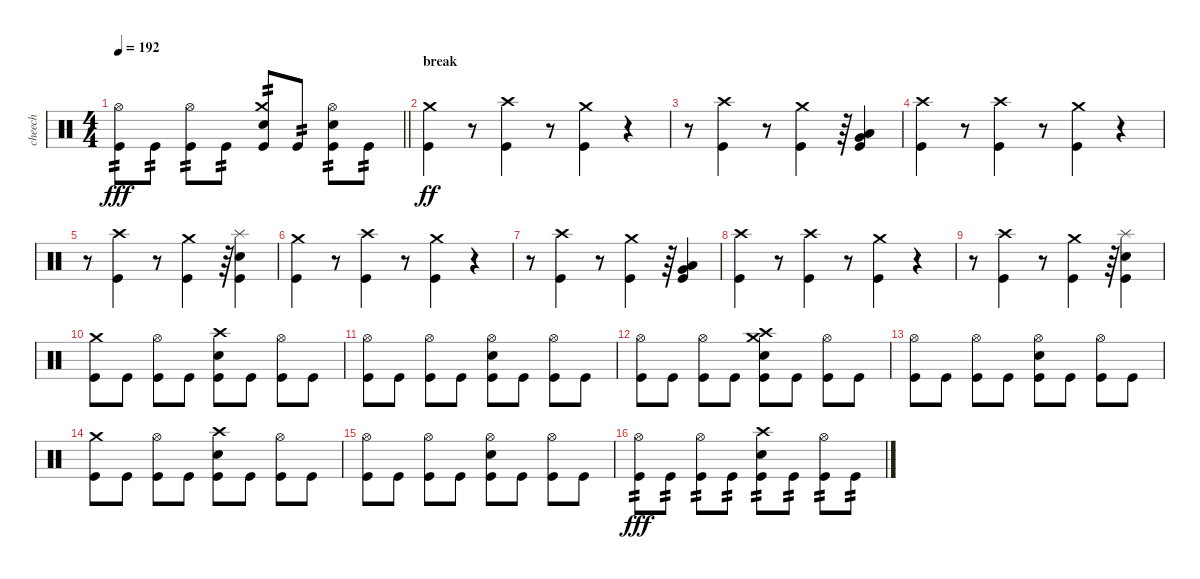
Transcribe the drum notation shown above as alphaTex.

\track ("cheech" "cheech") {instrument percussion}
\staff {score}
\articulation defaults
\ts (4 4)
\tempo 192
\clef neutral
\barLineRight lightlight
\ks c
("Hi-Hat (open)" "Kick (hit)").8{tp 2 dy fff} "Kick (hit)".8{tp 2} ("Hi-Hat (open)" "Kick (hit)").8{tp 2} "Kick (hit)".8{tp 2} ("Crash medium (hit)" "Electric Snare (hit)" "Kick (hit)").8{tp 2} "Kick (hit)".8{tp 2} ("Hi-Hat (open)" "Electric Snare (hit)" "Kick (hit)").8{tp 2} "Kick (hit)".8{tp 2} |
\section ("" "break")
("Crash medium (hit)" "Kick (hit)").4{dy ff} r.8 ("Crash high (hit)" "Kick (hit)").4 r.8 ("Crash medium (hit)" "Kick (hit)").4 r.4 |
r.8 ("Crash high (hit)" "Kick (hit)").4 r.8 ("Crash medium (hit)" "Kick (hit)").4 r.64 ("Very Low Tom (hit)" "Low Floor Tom (hit)" "Kick (hit)").4 |
("Crash high (hit)" "Kick (hit)").4 r.8 ("Crash high (hit)" "Kick (hit)").4 r.8 ("Crash medium (hit)" "Kick (hit)").4 r.4 |
r.8 ("Crash high (hit)" "Kick (hit)").4 r.8 ("Crash medium (hit)" "Kick (hit)").4 r.64 ("Splash (hit)" "Electric Snare (hit)" "Kick (hit)").4 |
("Crash medium (hit)" "Kick (hit)").4 r.8 ("Crash high (hit)" "Kick (hit)").4 r.8 ("Crash medium (hit)" "Kick (hit)").4 r.4 |
r.8 ("Crash high (hit)" "Kick (hit)").4 r.8 ("Crash medium (hit)" "Kick (hit)").4 r.64 ("Very Low Tom (hit)" "Low Floor Tom (hit)" "Kick (hit)").4 |
("Crash high (hit)" "Kick (hit)").4 r.8 ("Crash high (hit)" "Kick (hit)").4 r.8 ("Crash medium (hit)" "Kick (hit)").4 r.4 |
r.8 ("Crash high (hit)" "Kick (hit)").4 r.8 ("Crash medium (hit)" "Kick (hit)").4 r.64 ("Splash (hit)" "Electric Snare (hit)" "Kick (hit)").4 |
("Crash medium (hit)" "Kick (hit)").8 "Kick (hit)".8 ("Hi-Hat (open)" "Kick (hit)").8 "Kick (hit)".8 ("Crash high (hit)" "Electric Snare (hit)" "Kick (hit)").8 "Kick (hit)".8 ("Hi-Hat (open)" "Kick (hit)").8 "Kick (hit)".8 |
("Hi-Hat (open)" "Kick (hit)").8 "Kick (hit)".8 ("Hi-Hat (open)" "Kick (hit)").8 "Kick (hit)".8 ("Hi-Hat (open)" "Electric Snare (hit)" "Kick (hit)").8 "Kick (hit)".8 ("Hi-Hat (open)" "Kick (hit)").8 "Kick (hit)".8 |
("Hi-Hat (open)" "Kick (hit)").8 "Kick (hit)".8 ("Hi-Hat (open)" "Kick (hit)").8 "Kick (hit)".8 ("Crash high (hit)" "Crash medium (hit)" "Electric Snare (hit)" "Kick (hit)").8 "Kick (hit)".8 ("Hi-Hat (open)" "Kick (hit)").8 "Kick (hit)".8 |
("Hi-Hat (open)" "Kick (hit)").8 "Kick (hit)".8 ("Hi-Hat (open)" "Kick (hit)").8 "Kick (hit)".8 ("Hi-Hat (open)" "Electric Snare (hit)" "Kick (hit)").8 "Kick (hit)".8 ("Hi-Hat (open)" "Kick (hit)").8 "Kick (hit)".8 |
("Crash medium (hit)" "Kick (hit)").8 "Kick (hit)".8 ("Hi-Hat (open)" "Kick (hit)").8 "Kick (hit)".8 ("Crash high (hit)" "Electric Snare (hit)" "Kick (hit)").8 "Kick (hit)".8 ("Hi-Hat (open)" "Kick (hit)").8 "Kick (hit)".8 |
("Hi-Hat (open)" "Kick (hit)").8 "Kick (hit)".8 ("Hi-Hat (open)" "Kick (hit)").8 "Kick (hit)".8 ("Hi-Hat (open)" "Electric Snare (hit)" "Kick (hit)").8 "Kick (hit)".8 ("Hi-Hat (open)" "Kick (hit)").8 "Kick (hit)".8 |
("Hi-Hat (open)" "Kick (hit)").8{tp 2 dy fff} "Kick (hit)".8{tp 2} ("Hi-Hat (open)" "Kick (hit)").8{tp 2} "Kick (hit)".8{tp 2} ("Crash high (hit)" "Electric Snare (hit)" "Kick (hit)").8{tp 2} "Kick (hit)".8{tp 2} ("Hi-Hat (open)" "Kick (hit)").8{tp 2} "Kick (hit)".8{tp 2}
